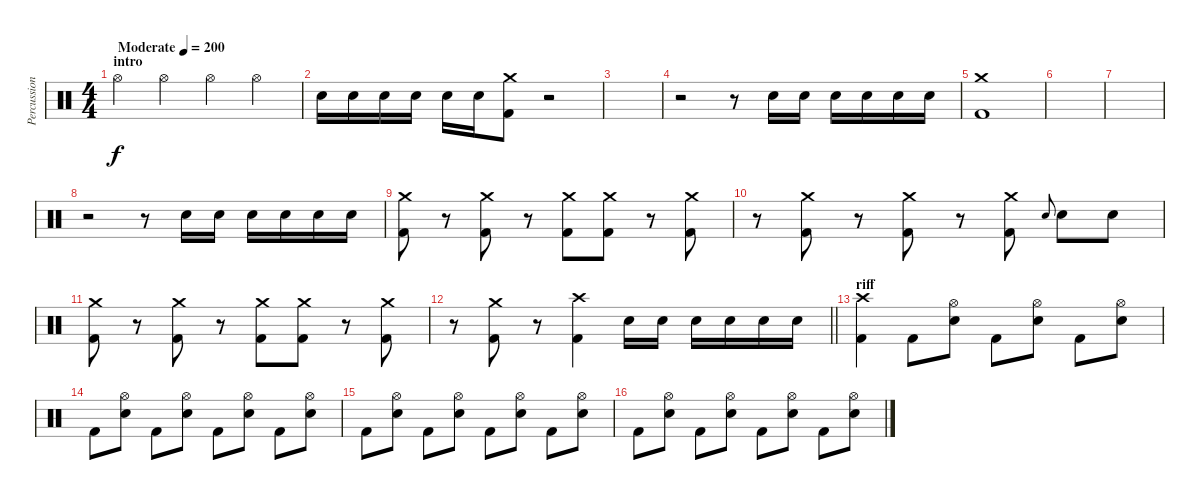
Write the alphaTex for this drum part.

\track ("Percussion" "Percussion") {instrument percussion}
\staff {score}
\articulation defaults
\ts (4 4)
\section ("" "intro")
\tempo (200 "Moderate")
\clef neutral
\ks c "Hi-Hat (open)".4{dy f} "Hi-Hat (open)".4 "Hi-Hat (open)".4 "Hi-Hat (open)".4
|
"Electric Snare (hit)".16 "Electric Snare (hit)".16 "Electric Snare (hit)".16 "Electric Snare (hit)".16 "Electric Snare (hit)".16 "Electric Snare (hit)".16 ("Crash medium (hit)" "Kick (hit) 2").8 r.2 |
|
r.2 r.8 "Electric Snare (hit)".16 "Electric Snare (hit)".16 "Electric Snare (hit)".16 "Electric Snare (hit)".16 "Electric Snare (hit)".16 "Electric Snare (hit)".16 |
("Crash medium (hit)" "Kick (hit) 2").1 |
|
|
r.2 r.8 "Electric Snare (hit)".16 "Electric Snare (hit)".16 "Electric Snare (hit)".16 "Electric Snare (hit)".16 "Electric Snare (hit)".16 "Electric Snare (hit)".16 |
("Crash medium (hit)" "Kick (hit) 2").8 r.8 ("Crash medium (hit)" "Kick (hit) 2").8 r.8 ("Crash medium (hit)" "Kick (hit) 2").8 ("Crash medium (hit)" "Kick (hit) 2").8 r.8 ("Crash medium (hit)" "Kick (hit) 2").8 |
r.8 ("Crash medium (hit)" "Kick (hit) 2").8 r.8 ("Crash medium (hit)" "Kick (hit) 2").8 r.8 ("Crash medium (hit)" "Kick (hit) 2").8 "Electric Snare (hit)".8{gr onbeat} "Electric Snare (hit)".8 "Electric Snare (hit)".8 |
("Crash medium (hit)" "Kick (hit) 2").8 r.8 ("Crash medium (hit)" "Kick (hit) 2").8 r.8 ("Crash medium (hit)" "Kick (hit) 2").8 ("Crash medium (hit)" "Kick (hit) 2").8 r.8 ("Crash medium (hit)" "Kick (hit) 2").8 |
\barLineRight lightlight
r.8 ("Crash medium (hit)" "Kick (hit) 2").8 r.8 ("Crash high (hit)" "Kick (hit) 2").4 "Electric Snare (hit)".16 "Electric Snare (hit)".16 "Electric Snare (hit)".16 "Electric Snare (hit)".16 "Electric Snare (hit)".16 "Electric Snare (hit)".16 |
\section ("" "riff")
("Crash high (hit)" "Kick (hit) 2").4 "Kick (hit) 2".8 ("Hi-Hat (open)" "Electric Snare (hit)").8 "Kick (hit) 2".8 ("Hi-Hat (open)" "Electric Snare (hit)").8 "Kick (hit) 2".8 ("Hi-Hat (open)" "Electric Snare (hit)").8 |
"Kick (hit) 2".8 ("Hi-Hat (open)" "Electric Snare (hit)").8 "Kick (hit) 2".8 ("Hi-Hat (open)" "Electric Snare (hit)").8 "Kick (hit) 2".8 ("Hi-Hat (open)" "Electric Snare (hit)").8 "Kick (hit) 2".8 ("Hi-Hat (open)" "Electric Snare (hit)").8 |
"Kick (hit) 2".8 ("Hi-Hat (open)" "Electric Snare (hit)").8 "Kick (hit) 2".8 ("Hi-Hat (open)" "Electric Snare (hit)").8 "Kick (hit) 2".8 ("Hi-Hat (open)" "Electric Snare (hit)").8 "Kick (hit) 2".8 ("Hi-Hat (open)" "Electric Snare (hit)").8 |
"Kick (hit) 2".8 ("Hi-Hat (open)" "Electric Snare (hit)").8 "Kick (hit) 2".8 ("Hi-Hat (open)" "Electric Snare (hit)").8 "Kick (hit) 2".8 ("Hi-Hat (open)" "Electric Snare (hit)").8 "Kick (hit) 2".8 ("Hi-Hat (open)" "Electric Snare (hit)").8
